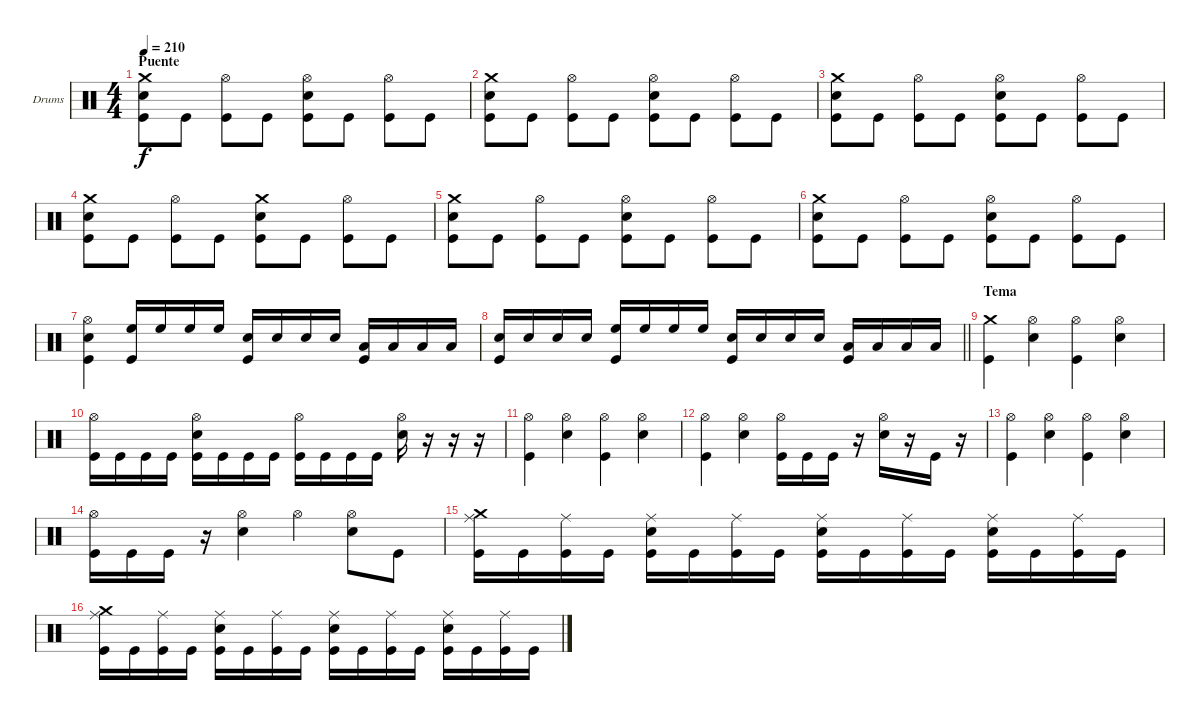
\bracketExtendMode groupsimilarinstruments
\firstSystemTrackNameOrientation horizontal
\otherSystemsTrackNameOrientation horizontal
\track ("Drumkit" "Drums") {instrument percussion}
\staff {score}
\articulation defaults
\ts (4 4)
\section ("" "Puente")
\tempo 210
\clef neutral
\ks c
("Crash medium (hit)" "Snare (hit) 2" "Kick (hit)").8{dy f} "Kick (hit)".8 ("Hi-Hat (open)" "Kick (hit)").8 "Kick (hit)".8 ("Hi-Hat (open)" "Snare (hit) 2" "Kick (hit)").8 "Kick (hit)".8 ("Hi-Hat (open)" "Kick (hit)").8 "Kick (hit)".8 |
("Crash medium (hit)" "Snare (hit) 2" "Kick (hit)").8 "Kick (hit)".8 ("Hi-Hat (open)" "Kick (hit)").8 "Kick (hit)".8 ("Hi-Hat (open)" "Snare (hit) 2" "Kick (hit)").8 "Kick (hit)".8 ("Hi-Hat (open)" "Kick (hit)").8 "Kick (hit)".8 |
("Crash medium (hit)" "Snare (hit) 2" "Kick (hit)").8 "Kick (hit)".8 ("Hi-Hat (open)" "Kick (hit)").8 "Kick (hit)".8 ("Hi-Hat (open)" "Snare (hit) 2" "Kick (hit)").8 "Kick (hit)".8 ("Hi-Hat (open)" "Kick (hit)").8 "Kick (hit)".8 |
("Crash medium (hit)" "Snare (hit) 2" "Kick (hit)").8 "Kick (hit)".8 ("Hi-Hat (open)" "Kick (hit)").8 "Kick (hit)".8 ("Crash medium (hit)" "Snare (hit) 2" "Kick (hit)").8 "Kick (hit)".8 ("Hi-Hat (open)" "Kick (hit)").8 "Kick (hit)".8 |
("Crash medium (hit)" "Snare (hit) 2" "Kick (hit)").8 "Kick (hit)".8 ("Hi-Hat (open)" "Kick (hit)").8 "Kick (hit)".8 ("Hi-Hat (open)" "Snare (hit) 2" "Kick (hit)").8 "Kick (hit)".8 ("Hi-Hat (open)" "Kick (hit)").8 "Kick (hit)".8 |
("Crash medium (hit)" "Snare (hit) 2" "Kick (hit)").8 "Kick (hit)".8 ("Hi-Hat (open)" "Kick (hit)").8 "Kick (hit)".8 ("Hi-Hat (open)" "Snare (hit) 2" "Kick (hit)").8 "Kick (hit)".8 ("Hi-Hat (open)" "Kick (hit)").8 "Kick (hit)".8 |
("Hi-Hat (open)" "Snare (hit) 2" "Kick (hit)").4 ("High Floor Tom (hit)" "Kick (hit)").16 "High Floor Tom (hit)".16 "High Floor Tom (hit)".16 "High Floor Tom (hit)".16 ("Snare (hit) 2" "Kick (hit)").16 "Snare (hit) 2".16 "Snare (hit) 2".16 "Snare (hit) 2".16 ("Low Tom (hit)" "Kick (hit)").16 "Low Tom (hit)".16 "Low Tom (hit)".16 "Low Tom (hit)".16 |
\barLineRight lightlight
("Snare (hit) 2" "Kick (hit)").16 "Snare (hit) 2".16 "Snare (hit) 2".16 "Snare (hit) 2".16 ("High Floor Tom (hit)" "Kick (hit)").16 "High Floor Tom (hit)".16 "High Floor Tom (hit)".16 "High Floor Tom (hit)".16 ("Snare (hit) 2" "Kick (hit)").16 "Snare (hit) 2".16 "Snare (hit) 2".16 "Snare (hit) 2".16 ("Low Tom (hit)" "Kick (hit)").16 "Low Tom (hit)".16 "Low Tom (hit)".16 "Low Tom (hit)".16 |
\section ("" "Tema")
("Crash medium (hit)" "Kick (hit)").4 ("Hi-Hat (open)" "Snare (hit) 2").4 ("Hi-Hat (open)" "Kick (hit)").4 ("Hi-Hat (open)" "Snare (hit) 2").4 |
("Hi-Hat (open)" "Kick (hit)").16 "Kick (hit)".16 "Kick (hit)".16 "Kick (hit)".16 ("Hi-Hat (open)" "Snare (hit) 2" "Kick (hit)").16 "Kick (hit)".16 "Kick (hit)".16 "Kick (hit)".16 ("Hi-Hat (open)" "Kick (hit)").16 "Kick (hit)".16 "Kick (hit)".16 "Kick (hit)".16 ("Hi-Hat (open)" "Snare (hit) 2").16 r.16 r.16 r.16 |
("Hi-Hat (open)" "Kick (hit)").4 ("Hi-Hat (open)" "Snare (hit) 2").4 ("Hi-Hat (open)" "Kick (hit)").4 ("Hi-Hat (open)" "Snare (hit) 2").4 |
("Hi-Hat (open)" "Kick (hit)").4 ("Hi-Hat (open)" "Snare (hit) 2").4 ("Hi-Hat (open)" "Kick (hit)").16 "Kick (hit)".16 "Kick (hit)".16 r.16 ("Hi-Hat (open)" "Snare (hit) 2").16 r.16 "Kick (hit)".16 r.16 |
("Hi-Hat (open)" "Kick (hit)").4 ("Hi-Hat (open)" "Snare (hit) 2").4 ("Hi-Hat (open)" "Kick (hit)").4 ("Hi-Hat (open)" "Snare (hit) 2").4 |
("Hi-Hat (open)" "Kick (hit)").16 "Kick (hit)".16 "Kick (hit)".16 r.16 ("Hi-Hat (open)" "Snare (hit) 2").4 "Hi-Hat (open)".4 ("Hi-Hat (open)" "Snare (hit) 2").8 "Kick (hit)".8 |
("Crash medium (hit)" "Ride (middle)" "Kick (hit)").16 "Kick (hit)".16 ("Ride (middle)" "Kick (hit)").16 "Kick (hit)".16 ("Ride (middle)" "Snare (hit) 2" "Kick (hit)").16 "Kick (hit)".16 ("Ride (middle)" "Kick (hit)").16 "Kick (hit)".16 ("Ride (middle)" "Snare (hit) 2" "Kick (hit)").16 "Kick (hit)".16 ("Ride (middle)" "Kick (hit)").16 "Kick (hit)".16 ("Ride (middle)" "Snare (hit) 2" "Kick (hit)").16 "Kick (hit)".16 ("Ride (middle)" "Kick (hit)").16 "Kick (hit)".16 |
("Crash medium (hit)" "Ride (middle)" "Kick (hit)").16 "Kick (hit)".16 ("Ride (middle)" "Kick (hit)").16 "Kick (hit)".16 ("Ride (middle)" "Snare (hit) 2" "Kick (hit)").16 "Kick (hit)".16 ("Ride (middle)" "Kick (hit)").16 "Kick (hit)".16 ("Ride (middle)" "Snare (hit) 2" "Kick (hit)").16 "Kick (hit)".16 ("Ride (middle)" "Kick (hit)").16 "Kick (hit)".16 ("Ride (middle)" "Snare (hit) 2" "Kick (hit)").16 "Kick (hit)".16 ("Ride (middle)" "Kick (hit)").16 "Kick (hit)".16
